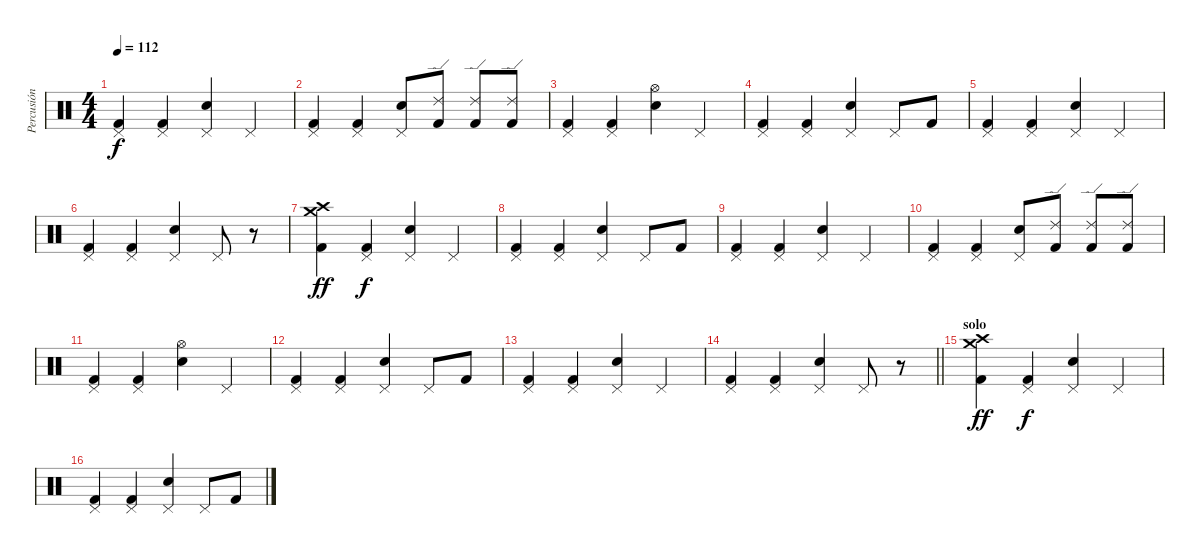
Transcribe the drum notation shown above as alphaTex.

\track ("Percusión" "Percusión") {instrument percussion}
\staff {score}
\articulation defaults
\ts (4 4)
\tempo 112
\clef neutral
\ks c
("Kick (hit) 2" "Pedal Hi-Hat (hit)").4{dy f} ("Kick (hit) 2" "Pedal Hi-Hat (hit)").4 ("Electric Snare (hit)" "Pedal Hi-Hat (hit)").4 "Pedal Hi-Hat (hit)".4 |
("Kick (hit) 2" "Pedal Hi-Hat (hit)").4 ("Kick (hit) 2" "Pedal Hi-Hat (hit)").4 ("Electric Snare (hit)" "Pedal Hi-Hat (hit)").8 ("Ride (edge) 2" "Kick (hit) 2").8 ("Ride (edge) 2" "Kick (hit) 2").8 ("Kick (hit) 2" "Ride (edge) 2").8 |
("Kick (hit) 2" "Pedal Hi-Hat (hit)").4 ("Kick (hit) 2" "Pedal Hi-Hat (hit)").4 ("Electric Snare (hit)" "Hi-Hat (open)").4 "Pedal Hi-Hat (hit)".4 |
("Kick (hit) 2" "Pedal Hi-Hat (hit)").4 ("Kick (hit) 2" "Pedal Hi-Hat (hit)").4 ("Electric Snare (hit)" "Pedal Hi-Hat (hit)").4 "Pedal Hi-Hat (hit)".8 "Kick (hit) 2".8 |
("Kick (hit) 2" "Pedal Hi-Hat (hit)").4 ("Kick (hit) 2" "Pedal Hi-Hat (hit)").4 ("Electric Snare (hit)" "Pedal Hi-Hat (hit)").4 "Pedal Hi-Hat (hit)".4 |
("Kick (hit) 2" "Pedal Hi-Hat (hit)").4 ("Kick (hit) 2" "Pedal Hi-Hat (hit)").4 ("Electric Snare (hit)" "Pedal Hi-Hat (hit)").4 "Pedal Hi-Hat (hit)".8 r.8 |
("Kick (hit) 2" "Crash medium (hit)" "Crash high (hit)").4{dy ff} ("Kick (hit) 2" "Pedal Hi-Hat (hit)").4{dy f} ("Electric Snare (hit)" "Pedal Hi-Hat (hit)").4 "Pedal Hi-Hat (hit)".4 |
("Kick (hit) 2" "Pedal Hi-Hat (hit)").4 ("Kick (hit) 2" "Pedal Hi-Hat (hit)").4 ("Electric Snare (hit)" "Pedal Hi-Hat (hit)").4 "Pedal Hi-Hat (hit)".8 "Kick (hit) 2".8 |
("Kick (hit) 2" "Pedal Hi-Hat (hit)").4 ("Kick (hit) 2" "Pedal Hi-Hat (hit)").4 ("Electric Snare (hit)" "Pedal Hi-Hat (hit)").4 "Pedal Hi-Hat (hit)".4 |
("Kick (hit) 2" "Pedal Hi-Hat (hit)").4 ("Kick (hit) 2" "Pedal Hi-Hat (hit)").4 ("Electric Snare (hit)" "Pedal Hi-Hat (hit)").8 ("Ride (edge) 2" "Kick (hit) 2").8 ("Ride (edge) 2" "Kick (hit) 2").8 ("Kick (hit) 2" "Ride (edge) 2").8 |
("Kick (hit) 2" "Pedal Hi-Hat (hit)").4 ("Kick (hit) 2" "Pedal Hi-Hat (hit)").4 ("Electric Snare (hit)" "Hi-Hat (open)").4 "Pedal Hi-Hat (hit)".4 |
("Kick (hit) 2" "Pedal Hi-Hat (hit)").4 ("Kick (hit) 2" "Pedal Hi-Hat (hit)").4 ("Electric Snare (hit)" "Pedal Hi-Hat (hit)").4 "Pedal Hi-Hat (hit)".8 "Kick (hit) 2".8 |
("Kick (hit) 2" "Pedal Hi-Hat (hit)").4 ("Kick (hit) 2" "Pedal Hi-Hat (hit)").4 ("Electric Snare (hit)" "Pedal Hi-Hat (hit)").4 "Pedal Hi-Hat (hit)".4 |
\barLineRight lightlight
("Kick (hit) 2" "Pedal Hi-Hat (hit)").4 ("Kick (hit) 2" "Pedal Hi-Hat (hit)").4 ("Electric Snare (hit)" "Pedal Hi-Hat (hit)").4 "Pedal Hi-Hat (hit)".8 r.8 |
\section ("" "solo")
("Kick (hit) 2" "Crash medium (hit)" "Crash high (hit)").4{dy ff} ("Kick (hit) 2" "Pedal Hi-Hat (hit)").4{dy f} ("Electric Snare (hit)" "Pedal Hi-Hat (hit)").4 "Pedal Hi-Hat (hit)".4 |
("Kick (hit) 2" "Pedal Hi-Hat (hit)").4 ("Kick (hit) 2" "Pedal Hi-Hat (hit)").4 ("Electric Snare (hit)" "Pedal Hi-Hat (hit)").4 "Pedal Hi-Hat (hit)".8 "Kick (hit) 2".8
